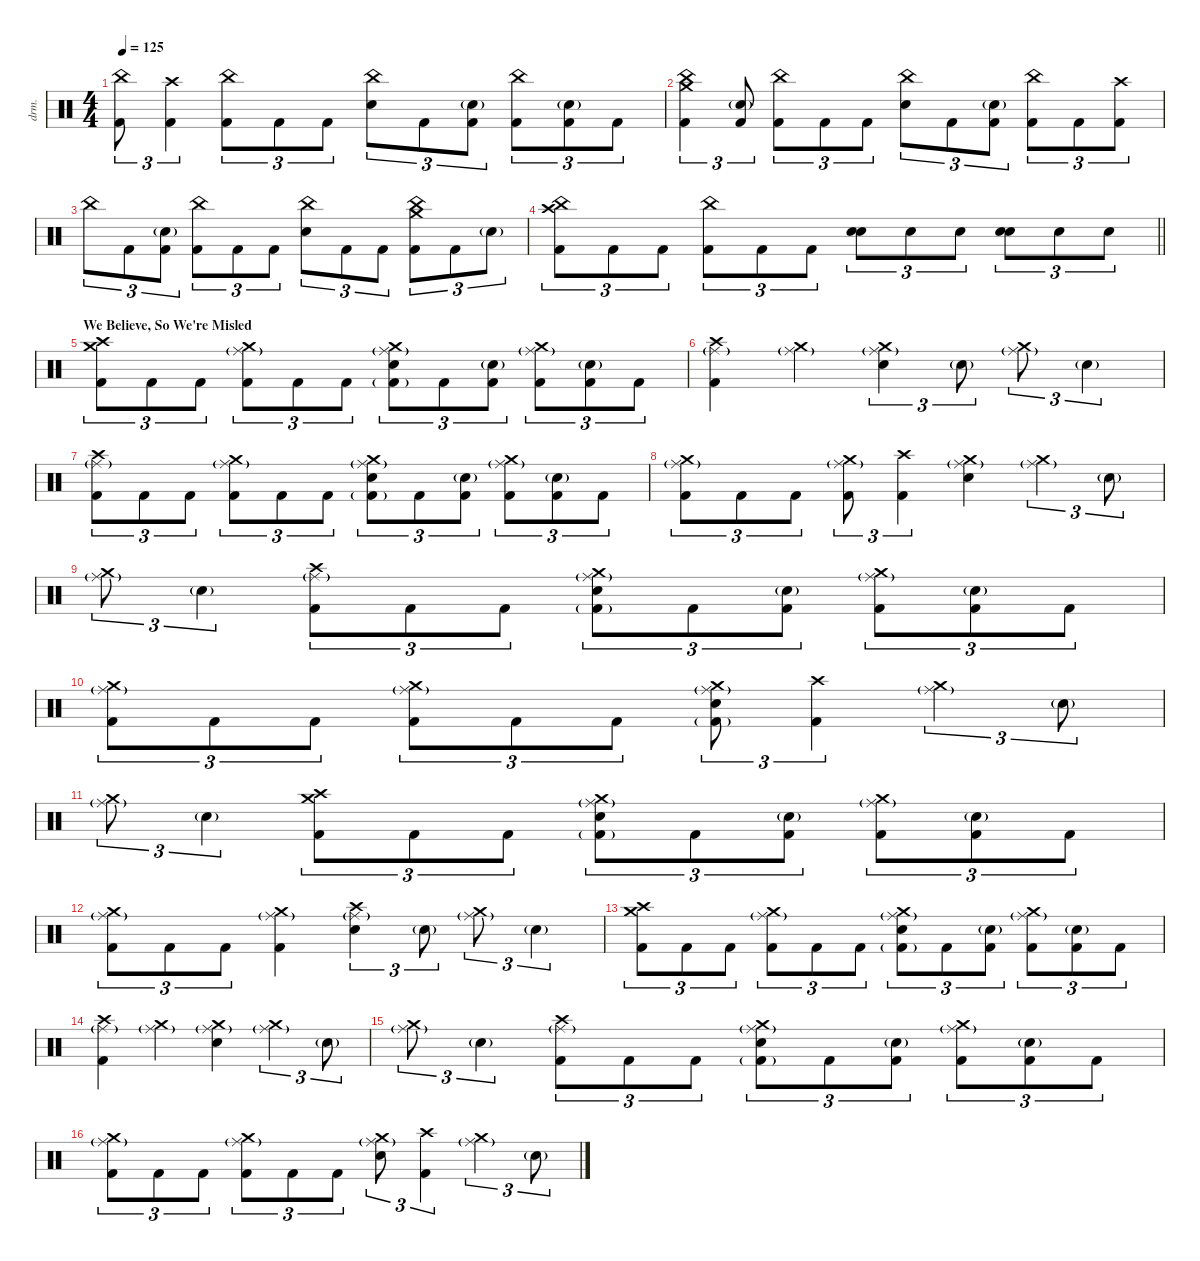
\defaultSystemsLayout 4
\hideDynamics
\bracketExtendMode nobrackets
\track ("DRUMS (Thomas Haake)" "drm.") {instrument percussion}
\staff {score}
\articulation defaults
\ts (4 4)
\tempo 125
\clef neutral
\ks c
("China (hit)" "Kick (hit) 2").8{tu (3 2) dy f} ("Crash high (hit)" "Kick (hit) 2").4{tu (3 2)} ("China (hit)" "Kick (hit) 2").8{tu (3 2)} "Kick (hit) 2".8{tu (3 2)} "Kick (hit) 2".8{tu (3 2)} ("China (hit)" "Snare (hit) 2").8{tu (3 2)} "Kick (hit) 2".8{tu (3 2)} ("Snare (hit) 2"{g} "Kick (hit) 2").8{tu (3 2)} ("China (hit)" "Kick (hit) 2").8{tu (3 2)} ("Snare (hit) 2"{g} "Kick (hit) 2").8{tu (3 2)} "Kick (hit) 2".8{tu (3 2)} |
("China (hit)" "Crash medium (hit)" "Kick (hit) 2").4{tu (3 2)} ("Snare (hit) 2"{g} "Kick (hit) 2").8{tu (3 2)} ("China (hit)" "Kick (hit) 2").8{tu (3 2)} "Kick (hit) 2".8{tu (3 2)} "Kick (hit) 2".8{tu (3 2)} ("China (hit)" "Snare (hit) 2").8{tu (3 2)} "Kick (hit) 2".8{tu (3 2)} ("Snare (hit) 2"{g} "Kick (hit) 2").8{tu (3 2)} ("China (hit)" "Kick (hit) 2").8{tu (3 2)} "Kick (hit) 2".8{tu (3 2)} ("Crash high (hit)" "Kick (hit) 2").8{tu (3 2)} |
"China (hit)".8{tu (3 2)} "Kick (hit) 2".8{tu (3 2)} ("Snare (hit) 2"{g} "Kick (hit) 2").8{tu (3 2)} ("China (hit)" "Kick (hit) 2").8{tu (3 2)} "Kick (hit) 2".8{tu (3 2)} "Kick (hit) 2".8{tu (3 2)} ("China (hit)" "Snare (hit) 2").8{tu (3 2)} "Kick (hit) 2".8{tu (3 2)} "Kick (hit) 2".8{tu (3 2)} ("China (hit)" "Crash medium (hit)" "Kick (hit) 2").8{tu (3 2)} "Kick (hit) 2".8{tu (3 2)} "Snare (hit) 2"{g}.8{tu (3 2) dy p} |
\barLineRight lightlight
("China (hit)" "Crash high (hit)" "Kick (hit) 2").8{tu (3 2) dy f} "Kick (hit) 2".8{tu (3 2)} "Kick (hit) 2".8{tu (3 2)} ("China (hit)" "Kick (hit) 2").8{tu (3 2)} "Kick (hit) 2".8{tu (3 2)} "Kick (hit) 2".8{tu (3 2)} ("Snare (hit) 2" "Snare (hit) 2").8{tu (3 2) dy mf} "Snare (hit) 2".8{tu (3 2) dy mp} "Snare (hit) 2".8{tu (3 2) dy mf} ("Snare (hit) 2" "Snare (hit) 2").8{tu (3 2)} "Snare (hit) 2".8{tu (3 2)} "Snare (hit) 2".8{tu (3 2) dy f} |
\section ("" "We Believe, So We're Misled")
("Crash medium (hit)" "Crash high (hit)" "Kick (hit) 2").8{tu (3 2)} "Kick (hit) 2".8{tu (3 2)} "Kick (hit) 2".8{tu (3 2)} ("Crash medium (hit)" "Ride (middle)"{g} "Kick (hit) 2").8{tu (3 2) dy mf} "Kick (hit) 2".8{tu (3 2) dy f} "Kick (hit) 2".8{tu (3 2)} ("Crash medium (hit)" "Ride (middle)"{g} "Snare (hit) 2" "Kick (hit) 2"{g}).8{tu (3 2) dy mf} "Kick (hit) 2".8{tu (3 2) dy f} ("Snare (hit) 2"{g} "Kick (hit) 2").8{tu (3 2)} ("Crash medium (hit)" "Ride (middle)"{g} "Kick (hit) 2").8{tu (3 2) dy mf} ("Snare (hit) 2"{g} "Kick (hit) 2").8{tu (3 2) dy f} "Kick (hit) 2".8{tu (3 2)} |
("Crash high (hit)" "Ride (middle)"{g} "Kick (hit) 2").4{dy mf} ("Crash medium (hit)" "Ride (middle)"{g}).4 ("Crash medium (hit)" "Ride (middle)"{g} "Snare (hit) 2").4{tu (3 2)} "Snare (hit) 2"{g}.8{tu (3 2) dy p} ("Crash medium (hit)" "Ride (middle)"{g}).8{tu (3 2) dy mf} "Snare (hit) 2"{g}.4{tu (3 2) dy p} |
("Crash high (hit)" "Ride (middle)"{g} "Kick (hit) 2").8{tu (3 2) dy mf} "Kick (hit) 2".8{tu (3 2) dy f} "Kick (hit) 2".8{tu (3 2)} ("Crash medium (hit)" "Ride (middle)"{g} "Kick (hit) 2").8{tu (3 2) dy mf} "Kick (hit) 2".8{tu (3 2) dy f} "Kick (hit) 2".8{tu (3 2)} ("Crash medium (hit)" "Ride (middle)"{g} "Snare (hit) 2" "Kick (hit) 2"{g}).8{tu (3 2) dy mf} "Kick (hit) 2".8{tu (3 2) dy f} ("Snare (hit) 2"{g} "Kick (hit) 2").8{tu (3 2)} ("Crash medium (hit)" "Ride (middle)"{g} "Kick (hit) 2").8{tu (3 2) dy mf} ("Snare (hit) 2"{g} "Kick (hit) 2").8{tu (3 2) dy f} "Kick (hit) 2".8{tu (3 2)} |
("Crash medium (hit)" "Ride (middle)"{g} "Kick (hit) 2").8{tu (3 2) dy mf} "Kick (hit) 2".8{tu (3 2) dy f} "Kick (hit) 2".8{tu (3 2)} ("Crash medium (hit)" "Ride (middle)"{g} "Kick (hit) 2").8{tu (3 2) dy mf} ("Crash high (hit)" "Kick (hit) 2").4{tu (3 2)} ("Crash medium (hit)" "Ride (middle)"{g} "Snare (hit) 2").4 ("Crash medium (hit)" "Ride (middle)"{g}).4{tu (3 2)} "Snare (hit) 2"{g}.8{tu (3 2) dy p} |
("Crash medium (hit)" "Ride (middle)"{g}).8{tu (3 2) dy mf} "Snare (hit) 2"{g}.4{tu (3 2) dy p} ("Crash high (hit)" "Ride (middle)"{g} "Kick (hit) 2").8{tu (3 2) dy mf} "Kick (hit) 2".8{tu (3 2) dy f} "Kick (hit) 2".8{tu (3 2)} ("Crash medium (hit)" "Ride (middle)"{g} "Snare (hit) 2" "Kick (hit) 2"{g}).8{tu (3 2) dy mf} "Kick (hit) 2".8{tu (3 2) dy f} ("Snare (hit) 2"{g} "Kick (hit) 2").8{tu (3 2)} ("Crash medium (hit)" "Ride (middle)"{g} "Kick (hit) 2").8{tu (3 2) dy mf} ("Snare (hit) 2"{g} "Kick (hit) 2").8{tu (3 2) dy f} "Kick (hit) 2".8{tu (3 2)} |
("Crash medium (hit)" "Ride (middle)"{g} "Kick (hit) 2").8{tu (3 2) dy mf} "Kick (hit) 2".8{tu (3 2) dy f} "Kick (hit) 2".8{tu (3 2)} ("Crash medium (hit)" "Ride (middle)"{g} "Kick (hit) 2").8{tu (3 2) dy mf} "Kick (hit) 2".8{tu (3 2) dy f} "Kick (hit) 2".8{tu (3 2)} ("Crash medium (hit)" "Ride (middle)"{g} "Snare (hit) 2" "Kick (hit) 2"{g}).8{tu (3 2) dy mf} ("Crash high (hit)" "Kick (hit) 2").4{tu (3 2)} ("Crash medium (hit)" "Ride (middle)"{g}).4{tu (3 2)} "Snare (hit) 2"{g}.8{tu (3 2) dy p} |
("Crash medium (hit)" "Ride (middle)"{g}).8{tu (3 2) dy mf} "Snare (hit) 2"{g}.4{tu (3 2) dy p} ("Crash high (hit)" "Crash medium (hit)" "Kick (hit) 2").8{tu (3 2) dy mf} "Kick (hit) 2".8{tu (3 2) dy f} "Kick (hit) 2".8{tu (3 2)} ("Crash medium (hit)" "Ride (middle)"{g} "Snare (hit) 2" "Kick (hit) 2"{g}).8{tu (3 2) dy mf} "Kick (hit) 2".8{tu (3 2) dy f} ("Snare (hit) 2"{g} "Kick (hit) 2").8{tu (3 2)} ("Crash medium (hit)" "Ride (middle)"{g} "Kick (hit) 2").8{tu (3 2) dy mf} ("Snare (hit) 2"{g} "Kick (hit) 2").8{tu (3 2) dy f} "Kick (hit) 2".8{tu (3 2)} |
("Crash medium (hit)" "Ride (middle)"{g} "Kick (hit) 2").8{tu (3 2) dy mf} "Kick (hit) 2".8{tu (3 2) dy f} "Kick (hit) 2".8{tu (3 2)} ("Crash medium (hit)" "Ride (middle)"{g} "Kick (hit) 2").4{dy mf} ("Crash high (hit)" "Ride (middle)"{g} "Snare (hit) 2").4{tu (3 2)} "Snare (hit) 2"{g}.8{tu (3 2) dy p} ("Crash medium (hit)" "Ride (middle)"{g}).8{tu (3 2) dy mf} "Snare (hit) 2"{g}.4{tu (3 2) dy p} |
("Crash medium (hit)" "Crash high (hit)" "Kick (hit) 2").8{tu (3 2) dy mf} "Kick (hit) 2".8{tu (3 2) dy f} "Kick (hit) 2".8{tu (3 2)} ("Crash medium (hit)" "Ride (middle)"{g} "Kick (hit) 2").8{tu (3 2) dy mf} "Kick (hit) 2".8{tu (3 2) dy f} "Kick (hit) 2".8{tu (3 2)} ("Crash medium (hit)" "Ride (middle)"{g} "Snare (hit) 2" "Kick (hit) 2"{g}).8{tu (3 2) dy mf} "Kick (hit) 2".8{tu (3 2) dy f} ("Snare (hit) 2"{g} "Kick (hit) 2").8{tu (3 2)} ("Crash medium (hit)" "Ride (middle)"{g} "Kick (hit) 2").8{tu (3 2) dy mf} ("Snare (hit) 2"{g} "Kick (hit) 2").8{tu (3 2) dy f} "Kick (hit) 2".8{tu (3 2)} |
("Crash high (hit)" "Ride (middle)"{g} "Kick (hit) 2").4{dy mf} ("Crash medium (hit)" "Ride (middle)"{g}).4 ("Crash medium (hit)" "Ride (middle)"{g} "Snare (hit) 2").4 ("Crash medium (hit)" "Ride (middle)"{g}).4{tu (3 2)} "Snare (hit) 2"{g}.8{tu (3 2) dy p} |
("Crash medium (hit)" "Ride (middle)"{g}).8{tu (3 2) dy mf} "Snare (hit) 2"{g}.4{tu (3 2) dy p} ("Crash high (hit)" "Ride (middle)"{g} "Kick (hit) 2").8{tu (3 2) dy mf} "Kick (hit) 2".8{tu (3 2) dy f} "Kick (hit) 2".8{tu (3 2)} ("Crash medium (hit)" "Ride (middle)"{g} "Snare (hit) 2" "Kick (hit) 2"{g}).8{tu (3 2) dy mf} "Kick (hit) 2".8{tu (3 2) dy f} ("Snare (hit) 2"{g} "Kick (hit) 2").8{tu (3 2)} ("Crash medium (hit)" "Ride (middle)"{g} "Kick (hit) 2").8{tu (3 2) dy mf} ("Snare (hit) 2"{g} "Kick (hit) 2").8{tu (3 2) dy f} "Kick (hit) 2".8{tu (3 2)} |
("Crash medium (hit)" "Ride (middle)"{g} "Kick (hit) 2").8{tu (3 2) dy mf} "Kick (hit) 2".8{tu (3 2) dy f} "Kick (hit) 2".8{tu (3 2)} ("Crash medium (hit)" "Ride (middle)"{g} "Kick (hit) 2").8{tu (3 2) dy mf} "Kick (hit) 2".8{tu (3 2) dy f} "Kick (hit) 2".8{tu (3 2)} ("Crash medium (hit)" "Ride (middle)"{g} "Snare (hit) 2").8{tu (3 2) dy mf} ("Crash high (hit)" "Kick (hit) 2").4{tu (3 2)} ("Crash medium (hit)" "Ride (middle)"{g}).4{tu (3 2)} "Snare (hit) 2"{g}.8{tu (3 2) dy p}
